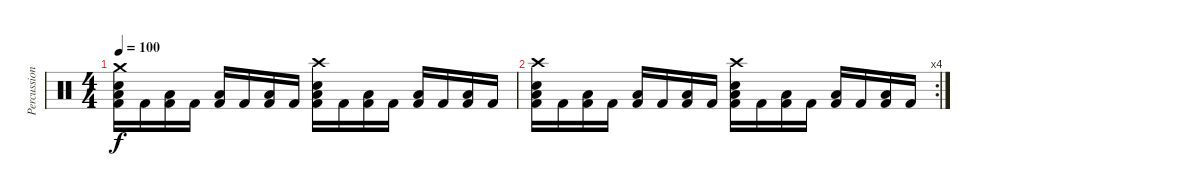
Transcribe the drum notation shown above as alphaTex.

\track ("Percussion" "Percussion") {solo instrument percussion}
\staff {score}
\articulation defaults
\ts (4 4)
\tempo 100
\clef neutral
\ks c
("Kick (hit) 2" "Low Floor Tom (hit)" "Snare (hit) 2" "Crash medium (hit)").16{dy f} "Kick (hit) 2".16 ("Kick (hit) 2" "Low Floor Tom (hit)").16 "Kick (hit) 2".16 ("Kick (hit) 2" "Low Floor Tom (hit)").16 "Kick (hit) 2".16 ("Kick (hit) 2" "Low Floor Tom (hit)").16 "Kick (hit) 2".16 ("Kick (hit) 2" "Low Floor Tom (hit)" "Snare (hit) 2" "Crash high (hit)").16 "Kick (hit) 2".16 ("Kick (hit) 2" "Low Floor Tom (hit)").16 "Kick (hit) 2".16 ("Kick (hit) 2" "Low Floor Tom (hit)").16 "Kick (hit) 2".16 ("Kick (hit) 2" "Low Floor Tom (hit)").16 "Kick (hit) 2".16 |
\rc 4
("Kick (hit) 2" "Low Floor Tom (hit)" "Snare (hit) 2" "Crash high (hit)").16 "Kick (hit) 2".16 ("Kick (hit) 2" "Low Floor Tom (hit)").16 "Kick (hit) 2".16 ("Kick (hit) 2" "Low Floor Tom (hit)").16 "Kick (hit) 2".16 ("Kick (hit) 2" "Low Floor Tom (hit)").16 "Kick (hit) 2".16 ("Kick (hit) 2" "Low Floor Tom (hit)" "Snare (hit) 2" "Crash high (hit)").16 "Kick (hit) 2".16 ("Kick (hit) 2" "Low Floor Tom (hit)").16 "Kick (hit) 2".16 ("Kick (hit) 2" "Low Floor Tom (hit)").16 "Kick (hit) 2".16 ("Kick (hit) 2" "Low Floor Tom (hit)").16 "Kick (hit) 2".16
